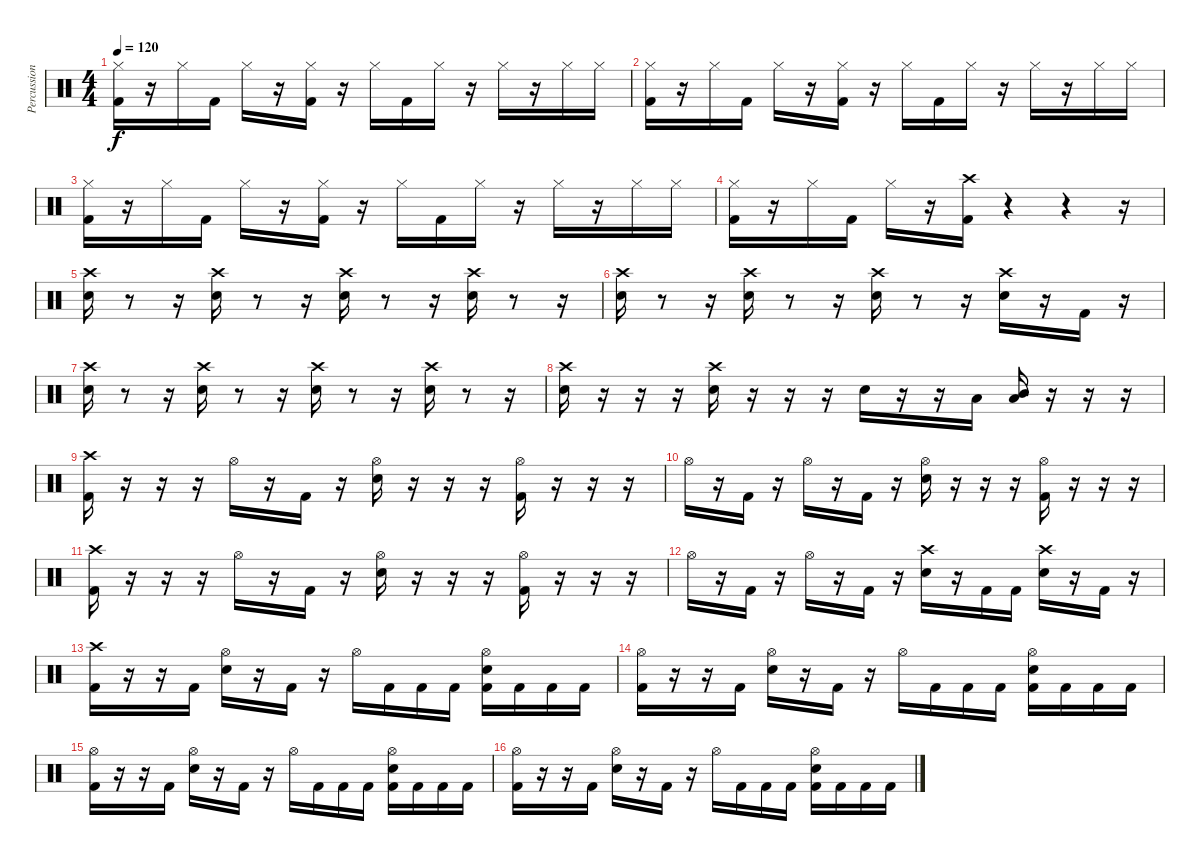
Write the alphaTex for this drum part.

\track ("Percussion" "Percussion") {instrument percussion}
\staff {score}
\articulation defaults
\ts (4 4)
\tempo 120
\clef neutral
\ks c
("Hi-Hat (closed)" "Kick (hit) 2").16{dy f} r.16 "Hi-Hat (closed)".16 "Kick (hit) 2".16 "Hi-Hat (closed)".16 r.16 ("Hi-Hat (closed)" "Kick (hit) 2").16 r.16 "Hi-Hat (closed)".16 "Kick (hit) 2".16 "Hi-Hat (closed)".16 r.16 "Hi-Hat (closed)".16 r.16 "Hi-Hat (closed)".16 "Hi-Hat (closed)".16 |
("Hi-Hat (closed)" "Kick (hit) 2").16 r.16 "Hi-Hat (closed)".16 "Kick (hit) 2".16 "Hi-Hat (closed)".16 r.16 ("Hi-Hat (closed)" "Kick (hit) 2").16 r.16 "Hi-Hat (closed)".16 "Kick (hit) 2".16 "Hi-Hat (closed)".16 r.16 "Hi-Hat (closed)".16 r.16 "Hi-Hat (closed)".16 "Hi-Hat (closed)".16 |
("Hi-Hat (closed)" "Kick (hit) 2").16 r.16 "Hi-Hat (closed)".16 "Kick (hit) 2".16 "Hi-Hat (closed)".16 r.16 ("Hi-Hat (closed)" "Kick (hit) 2").16 r.16 "Hi-Hat (closed)".16 "Kick (hit) 2".16 "Hi-Hat (closed)".16 r.16 "Hi-Hat (closed)".16 r.16 "Hi-Hat (closed)".16 "Hi-Hat (closed)".16 |
("Hi-Hat (closed)" "Kick (hit) 2").16 r.16 "Hi-Hat (closed)".16 "Kick (hit) 2".16 "Hi-Hat (closed)".16 r.16 ("Crash high (hit)" "Kick (hit) 2").16 r.4 r.4 r.16 |
("Crash high (hit)" "Snare (hit) 2").16 r.8 r.16 ("Crash high (hit)" "Snare (hit) 2").16 r.8 r.16 ("Crash high (hit)" "Snare (hit) 2").16 r.8 r.16 ("Crash high (hit)" "Snare (hit) 2").16 r.8 r.16 |
("Crash high (hit)" "Snare (hit) 2").16 r.8 r.16 ("Crash high (hit)" "Snare (hit) 2").16 r.8 r.16 ("Crash high (hit)" "Snare (hit) 2").16 r.8 r.16 ("Crash high (hit)" "Snare (hit) 2").16 r.16 "Kick (hit) 2".16 r.16 |
("Crash high (hit)" "Snare (hit) 2").16 r.8 r.16 ("Crash high (hit)" "Snare (hit) 2").16 r.8 r.16 ("Crash high (hit)" "Snare (hit) 2").16 r.8 r.16 ("Crash high (hit)" "Snare (hit) 2").16 r.8 r.16 |
("Crash high (hit)" "Snare (hit) 2").16 r.16 r.16 r.16 ("Crash high (hit)" "Snare (hit) 2").16 r.16 r.16 r.16 "Electric Snare (hit)".16 r.16 r.16 "Low Floor Tom (hit)".16 ("Mid Tom (hit)" "Low Floor Tom (hit)").16 r.16 r.16 r.16 |
("Crash high (hit)" "Kick (hit) 2").16 r.16 r.16 r.16 "Hi-Hat (open)".16 r.16 "Kick (hit) 2".16 r.16 ("Hi-Hat (open)" "Snare (hit) 2").16 r.16 r.16 r.16 ("Hi-Hat (open)" "Kick (hit) 2").16 r.16 r.16 r.16 |
"Hi-Hat (open)".16 r.16 "Kick (hit) 2".16 r.16 "Hi-Hat (open)".16 r.16 "Kick (hit) 2".16 r.16 ("Hi-Hat (open)" "Snare (hit) 2").16 r.16 r.16 r.16 ("Hi-Hat (open)" "Kick (hit) 2").16 r.16 r.16 r.16 |
("Crash high (hit)" "Kick (hit) 2").16 r.16 r.16 r.16 "Hi-Hat (open)".16 r.16 "Kick (hit) 2".16 r.16 ("Hi-Hat (open)" "Snare (hit) 2").16 r.16 r.16 r.16 ("Hi-Hat (open)" "Kick (hit) 2").16 r.16 r.16 r.16 |
"Hi-Hat (open)".16 r.16 "Kick (hit) 2".16 r.16 "Hi-Hat (open)".16 r.16 "Kick (hit) 2".16 r.16 ("Crash high (hit)" "Snare (hit) 2").16 r.16 "Kick (hit) 2".16 "Kick (hit) 2".16 ("Crash high (hit)" "Snare (hit) 2").16 r.16 "Kick (hit) 2".16 r.16 |
("Crash high (hit)" "Kick (hit) 2").16 r.16 r.16 "Kick (hit) 2".16 ("Hi-Hat (open)" "Snare (hit) 2").16 r.16 "Kick (hit) 2".16 r.16 "Hi-Hat (open)".16 "Kick (hit) 2".16 "Kick (hit) 2".16 "Kick (hit) 2".16 ("Hi-Hat (open)" "Snare (hit) 2" "Kick (hit) 2").16 "Kick (hit) 2".16 "Kick (hit) 2".16 "Kick (hit) 2".16 |
("Hi-Hat (open)" "Kick (hit) 2").16 r.16 r.16 "Kick (hit) 2".16 ("Hi-Hat (open)" "Snare (hit) 2").16 r.16 "Kick (hit) 2".16 r.16 "Hi-Hat (open)".16 "Kick (hit) 2".16 "Kick (hit) 2".16 "Kick (hit) 2".16 ("Hi-Hat (open)" "Snare (hit) 2" "Kick (hit) 2").16 "Kick (hit) 2".16 "Kick (hit) 2".16 "Kick (hit) 2".16 |
("Hi-Hat (open)" "Kick (hit) 2").16 r.16 r.16 "Kick (hit) 2".16 ("Hi-Hat (open)" "Snare (hit) 2").16 r.16 "Kick (hit) 2".16 r.16 "Hi-Hat (open)".16 "Kick (hit) 2".16 "Kick (hit) 2".16 "Kick (hit) 2".16 ("Hi-Hat (open)" "Snare (hit) 2" "Kick (hit) 2").16 "Kick (hit) 2".16 "Kick (hit) 2".16 "Kick (hit) 2".16 |
("Hi-Hat (open)" "Kick (hit) 2").16 r.16 r.16 "Kick (hit) 2".16 ("Hi-Hat (open)" "Snare (hit) 2").16 r.16 "Kick (hit) 2".16 r.16 "Hi-Hat (open)".16 "Kick (hit) 2".16 "Kick (hit) 2".16 "Kick (hit) 2".16 ("Hi-Hat (open)" "Snare (hit) 2" "Kick (hit) 2").16 "Kick (hit) 2".16 "Kick (hit) 2".16 "Kick (hit) 2".16
